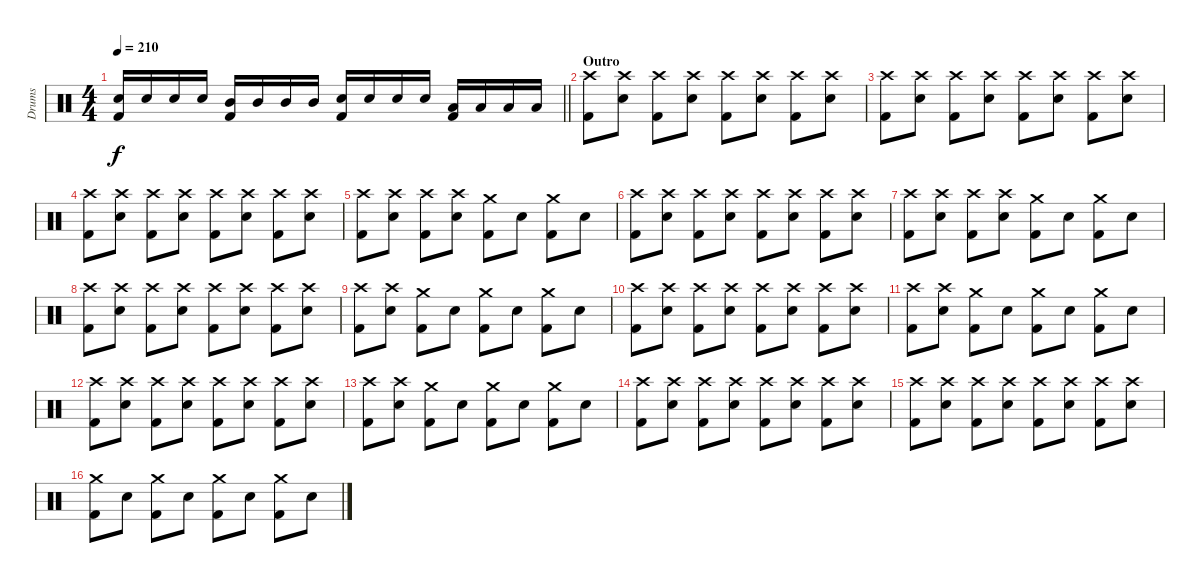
\track ("Drums" "Drums") {instrument percussion}
\staff {score}
\articulation defaults
\ts (4 4)
\tempo 210
\clef neutral
\barLineRight lightlight
\ks c
("Kick (hit) 2" "Electric Snare (hit)").16{dy f} "Electric Snare (hit)".16 "Electric Snare (hit)".16 "Electric Snare (hit)".16 ("Kick (hit) 2" "Mid Tom (hit)").16 "Mid Tom (hit)".16 "Mid Tom (hit)".16 "Mid Tom (hit)".16 ("Kick (hit) 2" "Electric Snare (hit)").16 "Electric Snare (hit)".16 "Electric Snare (hit)".16 "Electric Snare (hit)".16 ("Kick (hit) 2" "Low Tom (hit)").16 "Low Tom (hit)".16 "Low Tom (hit)".16 "Low Tom (hit)".16 |
\section ("" "Outro")
("Kick (hit) 2" "Crash high (hit)").8 ("Electric Snare (hit)" "Crash high (hit)").8 ("Kick (hit) 2" "Crash high (hit)").8 ("Electric Snare (hit)" "Crash high (hit)").8 ("Kick (hit) 2" "Crash high (hit)").8 ("Electric Snare (hit)" "Crash high (hit)").8 ("Kick (hit) 2" "Crash high (hit)").8 ("Electric Snare (hit)" "Crash high (hit)").8 |
("Kick (hit) 2" "Crash high (hit)").8 ("Electric Snare (hit)" "Crash high (hit)").8 ("Kick (hit) 2" "Crash high (hit)").8 ("Electric Snare (hit)" "Crash high (hit)").8 ("Kick (hit) 2" "Crash high (hit)").8 ("Electric Snare (hit)" "Crash high (hit)").8 ("Kick (hit) 2" "Crash high (hit)").8 ("Electric Snare (hit)" "Crash high (hit)").8 |
("Kick (hit) 2" "Crash high (hit)").8 ("Electric Snare (hit)" "Crash high (hit)").8 ("Kick (hit) 2" "Crash high (hit)").8 ("Electric Snare (hit)" "Crash high (hit)").8 ("Kick (hit) 2" "Crash high (hit)").8 ("Electric Snare (hit)" "Crash high (hit)").8 ("Kick (hit) 2" "Crash high (hit)").8 ("Electric Snare (hit)" "Crash high (hit)").8 |
("Kick (hit) 2" "Crash high (hit)").8 ("Electric Snare (hit)" "Crash high (hit)").8 ("Kick (hit) 2" "Crash high (hit)").8 ("Electric Snare (hit)" "Crash high (hit)").8 ("Kick (hit) 2" "Crash medium (hit)").8 "Electric Snare (hit)".8 ("Kick (hit) 2" "Crash medium (hit)").8 "Electric Snare (hit)".8 |
("Kick (hit) 2" "Crash high (hit)").8 ("Electric Snare (hit)" "Crash high (hit)").8 ("Kick (hit) 2" "Crash high (hit)").8 ("Electric Snare (hit)" "Crash high (hit)").8 ("Kick (hit) 2" "Crash high (hit)").8 ("Electric Snare (hit)" "Crash high (hit)").8 ("Kick (hit) 2" "Crash high (hit)").8 ("Electric Snare (hit)" "Crash high (hit)").8 |
("Kick (hit) 2" "Crash high (hit)").8 ("Electric Snare (hit)" "Crash high (hit)").8 ("Kick (hit) 2" "Crash high (hit)").8 ("Electric Snare (hit)" "Crash high (hit)").8 ("Kick (hit) 2" "Crash medium (hit)").8 "Electric Snare (hit)".8 ("Kick (hit) 2" "Crash medium (hit)").8 "Electric Snare (hit)".8 |
("Kick (hit) 2" "Crash high (hit)").8 ("Electric Snare (hit)" "Crash high (hit)").8 ("Kick (hit) 2" "Crash high (hit)").8 ("Electric Snare (hit)" "Crash high (hit)").8 ("Kick (hit) 2" "Crash high (hit)").8 ("Electric Snare (hit)" "Crash high (hit)").8 ("Kick (hit) 2" "Crash high (hit)").8 ("Electric Snare (hit)" "Crash high (hit)").8 |
("Kick (hit) 2" "Crash high (hit)").8 ("Electric Snare (hit)" "Crash high (hit)").8 ("Kick (hit) 2" "Crash medium (hit)").8 "Electric Snare (hit)".8 ("Kick (hit) 2" "Crash medium (hit)").8 "Electric Snare (hit)".8 ("Kick (hit) 2" "Crash medium (hit)").8 "Electric Snare (hit)".8 |
("Kick (hit) 2" "Crash high (hit)").8 ("Electric Snare (hit)" "Crash high (hit)").8 ("Kick (hit) 2" "Crash high (hit)").8 ("Electric Snare (hit)" "Crash high (hit)").8 ("Kick (hit) 2" "Crash high (hit)").8 ("Electric Snare (hit)" "Crash high (hit)").8 ("Kick (hit) 2" "Crash high (hit)").8 ("Electric Snare (hit)" "Crash high (hit)").8 |
("Kick (hit) 2" "Crash high (hit)").8 ("Electric Snare (hit)" "Crash high (hit)").8 ("Kick (hit) 2" "Crash medium (hit)").8 "Electric Snare (hit)".8 ("Kick (hit) 2" "Crash medium (hit)").8 "Electric Snare (hit)".8 ("Kick (hit) 2" "Crash medium (hit)").8 "Electric Snare (hit)".8 |
("Kick (hit) 2" "Crash high (hit)").8 ("Electric Snare (hit)" "Crash high (hit)").8 ("Kick (hit) 2" "Crash high (hit)").8 ("Electric Snare (hit)" "Crash high (hit)").8 ("Kick (hit) 2" "Crash high (hit)").8 ("Electric Snare (hit)" "Crash high (hit)").8 ("Kick (hit) 2" "Crash high (hit)").8 ("Electric Snare (hit)" "Crash high (hit)").8 |
("Kick (hit) 2" "Crash high (hit)").8 ("Electric Snare (hit)" "Crash high (hit)").8 ("Kick (hit) 2" "Crash medium (hit)").8 "Electric Snare (hit)".8 ("Kick (hit) 2" "Crash medium (hit)").8 "Electric Snare (hit)".8 ("Kick (hit) 2" "Crash medium (hit)").8 "Electric Snare (hit)".8 |
("Kick (hit) 2" "Crash high (hit)").8 ("Electric Snare (hit)" "Crash high (hit)").8 ("Kick (hit) 2" "Crash high (hit)").8 ("Electric Snare (hit)" "Crash high (hit)").8 ("Kick (hit) 2" "Crash high (hit)").8 ("Electric Snare (hit)" "Crash high (hit)").8 ("Kick (hit) 2" "Crash high (hit)").8 ("Electric Snare (hit)" "Crash high (hit)").8 |
("Kick (hit) 2" "Crash high (hit)").8 ("Electric Snare (hit)" "Crash high (hit)").8 ("Kick (hit) 2" "Crash high (hit)").8 ("Electric Snare (hit)" "Crash high (hit)").8 ("Kick (hit) 2" "Crash high (hit)").8 ("Electric Snare (hit)" "Crash high (hit)").8 ("Kick (hit) 2" "Crash high (hit)").8 ("Electric Snare (hit)" "Crash high (hit)").8 |
("Kick (hit) 2" "Crash medium (hit)").8 "Electric Snare (hit)".8 ("Kick (hit) 2" "Crash medium (hit)").8 "Electric Snare (hit)".8 ("Kick (hit) 2" "Crash medium (hit)").8 "Electric Snare (hit)".8 ("Kick (hit) 2" "Crash medium (hit)").8 "Electric Snare (hit)".8
